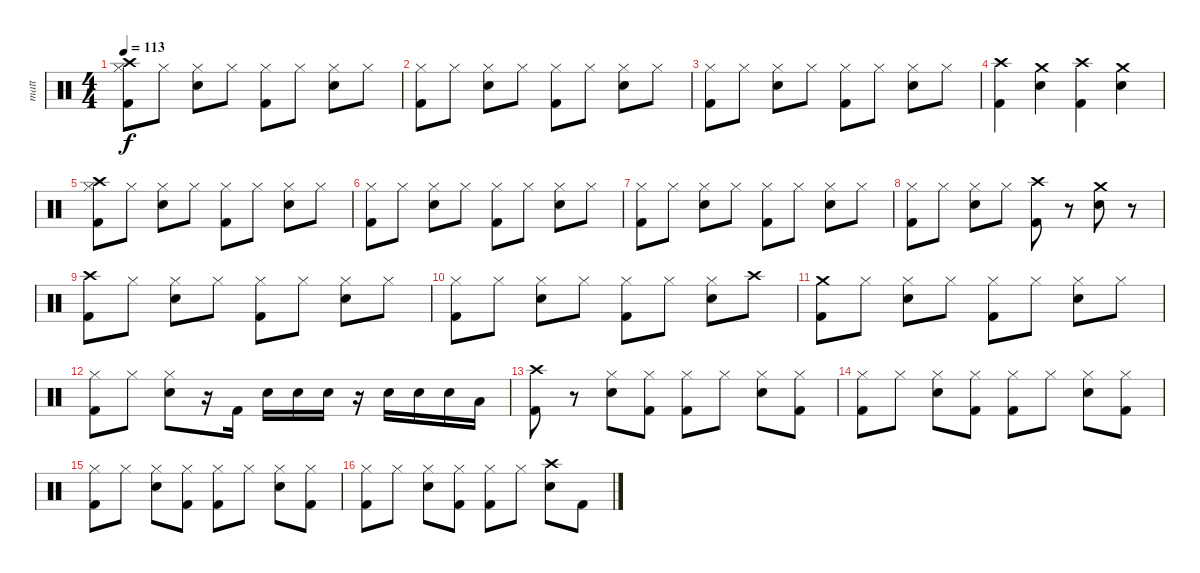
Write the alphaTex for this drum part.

\track ("matt" "matt") {instrument percussion}
\staff {score}
\articulation defaults
\ts (4 4)
\tempo 113
\clef neutral
\ks c
("Crash high (hit)" "Hi-Hat (closed)" "Kick (hit) 2").8{dy f} "Hi-Hat (closed)".8 ("Hi-Hat (closed)" "Electric Snare (hit)").8 "Hi-Hat (closed)".8 ("Hi-Hat (closed)" "Kick (hit) 2").8 "Hi-Hat (closed)".8 ("Hi-Hat (closed)" "Electric Snare (hit)").8 "Hi-Hat (closed)".8 |
("Hi-Hat (closed)" "Kick (hit) 2").8 "Hi-Hat (closed)".8 ("Hi-Hat (closed)" "Electric Snare (hit)").8 "Hi-Hat (closed)".8 ("Hi-Hat (closed)" "Kick (hit) 2").8 "Hi-Hat (closed)".8 ("Hi-Hat (closed)" "Electric Snare (hit)").8 "Hi-Hat (closed)".8 |
("Hi-Hat (closed)" "Kick (hit) 2").8 "Hi-Hat (closed)".8 ("Hi-Hat (closed)" "Electric Snare (hit)").8 "Hi-Hat (closed)".8 ("Hi-Hat (closed)" "Kick (hit) 2").8 "Hi-Hat (closed)".8 ("Hi-Hat (closed)" "Electric Snare (hit)").8 "Hi-Hat (closed)".8 |
("Crash high (hit)" "Kick (hit) 2").4 ("Crash medium (hit)" "Electric Snare (hit)").4 ("Crash high (hit)" "Kick (hit) 2").4 ("Crash medium (hit)" "Electric Snare (hit)").4 |
("Crash high (hit)" "Hi-Hat (closed)" "Kick (hit) 2").8 "Hi-Hat (closed)".8 ("Hi-Hat (closed)" "Electric Snare (hit)").8 "Hi-Hat (closed)".8 ("Hi-Hat (closed)" "Kick (hit) 2").8 "Hi-Hat (closed)".8 ("Hi-Hat (closed)" "Electric Snare (hit)").8 "Hi-Hat (closed)".8 |
("Hi-Hat (closed)" "Kick (hit) 2").8 "Hi-Hat (closed)".8 ("Hi-Hat (closed)" "Electric Snare (hit)").8 "Hi-Hat (closed)".8 ("Hi-Hat (closed)" "Kick (hit) 2").8 "Hi-Hat (closed)".8 ("Hi-Hat (closed)" "Electric Snare (hit)").8 "Hi-Hat (closed)".8 |
("Hi-Hat (closed)" "Kick (hit) 2").8 "Hi-Hat (closed)".8 ("Hi-Hat (closed)" "Electric Snare (hit)").8 "Hi-Hat (closed)".8 ("Hi-Hat (closed)" "Kick (hit) 2").8 "Hi-Hat (closed)".8 ("Hi-Hat (closed)" "Electric Snare (hit)").8 "Hi-Hat (closed)".8 |
("Hi-Hat (closed)" "Kick (hit) 2").8 "Hi-Hat (closed)".8 ("Hi-Hat (closed)" "Electric Snare (hit)").8 "Hi-Hat (closed)".8 ("Crash high (hit)" "Kick (hit) 2").8 r.8 ("Crash medium (hit)" "Electric Snare (hit)").8 r.8 |
("Crash high (hit)" "Kick (hit) 2").8 "Hi-Hat (closed)".8 ("Hi-Hat (closed)" "Electric Snare (hit)").8 "Hi-Hat (closed)".8 ("Hi-Hat (closed)" "Kick (hit) 2").8 "Hi-Hat (closed)".8 ("Hi-Hat (closed)" "Electric Snare (hit)").8 "Hi-Hat (closed)".8 |
("Hi-Hat (closed)" "Kick (hit) 2").8 "Hi-Hat (closed)".8 ("Hi-Hat (closed)" "Electric Snare (hit)").8 "Hi-Hat (closed)".8 ("Hi-Hat (closed)" "Kick (hit) 2").8 "Hi-Hat (closed)".8 ("Hi-Hat (closed)" "Electric Snare (hit)").8 "Crash high (hit)".8 |
("Crash medium (hit)" "Kick (hit) 2").8 "Hi-Hat (closed)".8 ("Hi-Hat (closed)" "Electric Snare (hit)").8 "Hi-Hat (closed)".8 ("Hi-Hat (closed)" "Kick (hit) 2").8 "Hi-Hat (closed)".8 ("Hi-Hat (closed)" "Electric Snare (hit)").8 "Hi-Hat (closed)".8 |
("Hi-Hat (closed)" "Kick (hit) 2").8 "Hi-Hat (closed)".8 ("Hi-Hat (closed)" "Electric Snare (hit)").8 r.16 "Kick (hit) 2".16 "Electric Snare (hit)".16 "Electric Snare (hit)".16 "Electric Snare (hit)".16 r.16 "Electric Snare (hit)".16 "Electric Snare (hit)".16 "Electric Snare (hit)".16 "Low Tom (hit)".16 |
("Crash high (hit)" "Kick (hit) 2").8 r.8 ("Hi-Hat (closed)" "Electric Snare (hit)").8 ("Hi-Hat (closed)" "Kick (hit) 2").8 ("Hi-Hat (closed)" "Kick (hit) 2").8 "Hi-Hat (closed)".8 ("Hi-Hat (closed)" "Electric Snare (hit)").8 ("Hi-Hat (closed)" "Kick (hit) 2").8 |
("Hi-Hat (closed)" "Kick (hit) 2").8 "Hi-Hat (closed)".8 ("Hi-Hat (closed)" "Electric Snare (hit)").8 ("Hi-Hat (closed)" "Kick (hit) 2").8 ("Hi-Hat (closed)" "Kick (hit) 2").8 "Hi-Hat (closed)".8 ("Hi-Hat (closed)" "Electric Snare (hit)").8 ("Hi-Hat (closed)" "Kick (hit) 2").8 |
("Hi-Hat (closed)" "Kick (hit) 2").8 "Hi-Hat (closed)".8 ("Hi-Hat (closed)" "Electric Snare (hit)").8 ("Hi-Hat (closed)" "Kick (hit) 2").8 ("Hi-Hat (closed)" "Kick (hit) 2").8 "Hi-Hat (closed)".8 ("Hi-Hat (closed)" "Electric Snare (hit)").8 ("Hi-Hat (closed)" "Kick (hit) 2").8 |
("Hi-Hat (closed)" "Kick (hit) 2").8 "Hi-Hat (closed)".8 ("Hi-Hat (closed)" "Electric Snare (hit)").8 ("Hi-Hat (closed)" "Kick (hit) 2").8 ("Hi-Hat (closed)" "Kick (hit) 2").8 "Hi-Hat (closed)".8 ("Crash high (hit)" "Electric Snare (hit)").8 "Kick (hit) 2".8
